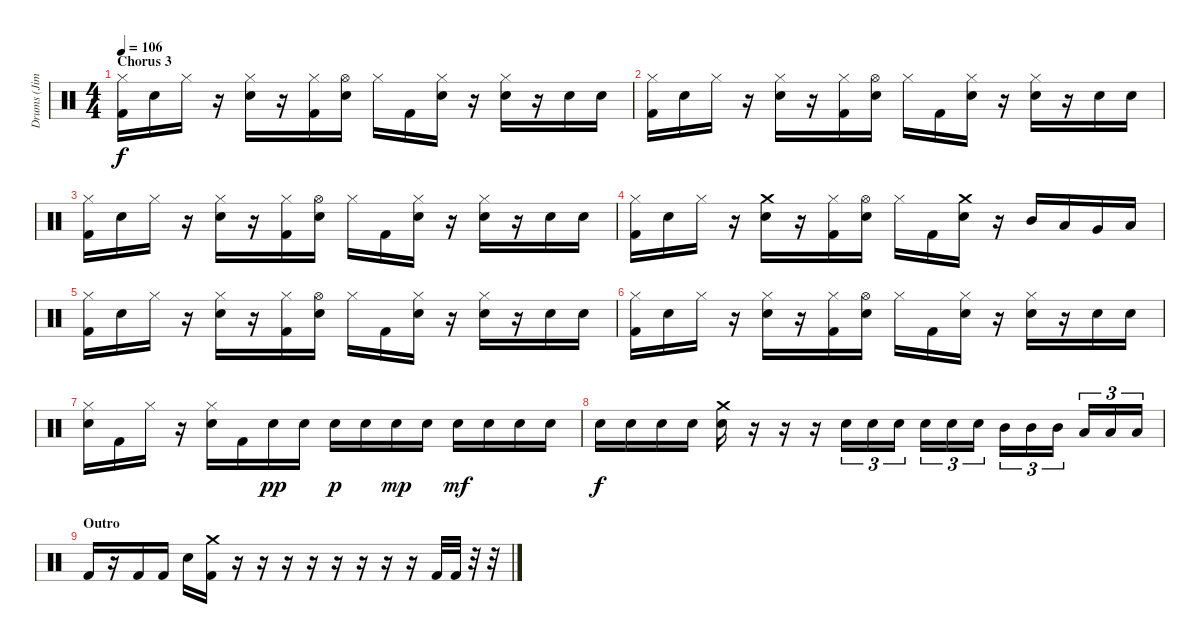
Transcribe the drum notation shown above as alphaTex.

\track ("Drums (Jimmy)" "Drums (Jim") {instrument percussion}
\staff {score}
\articulation defaults
\ts (4 4)
\section ("" "Chorus 3")
\tempo 106
\clef neutral
\ks c
("Hi-Hat (closed)" "Kick (hit) 2").16{dy f} "Snare (hit) 2".16 "Hi-Hat (closed)".16 r.16 ("Hi-Hat (closed)" "Snare (hit) 2").16 r.16 ("Hi-Hat (closed)" "Kick (hit) 2").16 ("Hi-Hat (open)" "Snare (hit) 2").16 "Hi-Hat (closed)".16 "Kick (hit) 2".16 ("Hi-Hat (closed)" "Snare (hit) 2").16 r.16 ("Hi-Hat (closed)" "Snare (hit) 2").16 r.16 "Snare (hit) 2".16 "Snare (hit) 2".16 |
("Hi-Hat (closed)" "Kick (hit) 2").16 "Snare (hit) 2".16 "Hi-Hat (closed)".16 r.16 ("Hi-Hat (closed)" "Snare (hit) 2").16 r.16 ("Hi-Hat (closed)" "Kick (hit) 2").16 ("Hi-Hat (open)" "Snare (hit) 2").16 "Hi-Hat (closed)".16 "Kick (hit) 2".16 ("Hi-Hat (closed)" "Snare (hit) 2").16 r.16 ("Hi-Hat (closed)" "Snare (hit) 2").16 r.16 "Snare (hit) 2".16 "Snare (hit) 2".16 |
("Hi-Hat (closed)" "Kick (hit) 2").16 "Snare (hit) 2".16 "Hi-Hat (closed)".16 r.16 ("Hi-Hat (closed)" "Snare (hit) 2").16 r.16 ("Hi-Hat (closed)" "Kick (hit) 2").16 ("Hi-Hat (open)" "Snare (hit) 2").16 "Hi-Hat (closed)".16 "Kick (hit) 2".16 ("Hi-Hat (closed)" "Snare (hit) 2").16 r.16 ("Hi-Hat (closed)" "Snare (hit) 2").16 r.16 "Snare (hit) 2".16 "Snare (hit) 2".16 |
("Hi-Hat (closed)" "Kick (hit) 2").16 "Snare (hit) 2".16 "Hi-Hat (closed)".16 r.16 ("Crash medium (hit)" "Snare (hit) 2").16 r.16 ("Hi-Hat (closed)" "Kick (hit) 2").16 ("Hi-Hat (open)" "Snare (hit) 2").16 "Hi-Hat (closed)".16 "Kick (hit) 2".16 ("Crash medium (hit)" "Snare (hit) 2").16 r.16 "Mid Tom (hit)".16 "Low Tom (hit)".16 "Very Low Tom (hit)".16 "Low Floor Tom (hit)".16 |
("Hi-Hat (closed)" "Kick (hit) 2").16 "Snare (hit) 2".16 "Hi-Hat (closed)".16 r.16 ("Hi-Hat (closed)" "Snare (hit) 2").16 r.16 ("Hi-Hat (closed)" "Kick (hit) 2").16 ("Hi-Hat (open)" "Snare (hit) 2").16 "Hi-Hat (closed)".16 "Kick (hit) 2".16 ("Hi-Hat (closed)" "Snare (hit) 2").16 r.16 ("Hi-Hat (closed)" "Snare (hit) 2").16 r.16 "Snare (hit) 2".16 "Snare (hit) 2".16 |
("Hi-Hat (closed)" "Kick (hit) 2").16 "Snare (hit) 2".16 "Hi-Hat (closed)".16 r.16 ("Hi-Hat (closed)" "Snare (hit) 2").16 r.16 ("Hi-Hat (closed)" "Kick (hit) 2").16 ("Hi-Hat (open)" "Snare (hit) 2").16 "Hi-Hat (closed)".16 "Kick (hit) 2".16 ("Hi-Hat (closed)" "Snare (hit) 2").16 r.16 ("Hi-Hat (closed)" "Snare (hit) 2").16 r.16 "Snare (hit) 2".16 "Snare (hit) 2".16 |
("Hi-Hat (closed)" "Snare (hit) 2").16 "Kick (hit) 2".16 "Hi-Hat (closed)".16 r.16 ("Hi-Hat (closed)" "Snare (hit) 2").16 "Kick (hit) 2".16 "Snare (hit) 2".16{dy pp} "Snare (hit) 2".16 "Snare (hit) 2".16{dy p} "Snare (hit) 2".16 "Snare (hit) 2".16{dy mp} "Snare (hit) 2".16 "Snare (hit) 2".16{dy mf} "Snare (hit) 2".16 "Snare (hit) 2".16 "Snare (hit) 2".16 |
"Snare (hit) 2".16{dy f} "Snare (hit) 2".16 "Snare (hit) 2".16 "Snare (hit) 2".16 ("Crash medium (hit)" "Snare (hit) 2").16 r.16 r.16 r.16 "Snare (hit) 2".16{tu (3 2)} "Snare (hit) 2".16{tu (3 2)} "Snare (hit) 2".16{tu (3 2)} "Snare (hit) 2".16{tu (3 2)} "Snare (hit) 2".16{tu (3 2)} "Snare (hit) 2".16{tu (3 2)} "Mid Tom (hit)".16{tu (3 2)} "Mid Tom (hit)".16{tu (3 2)} "Mid Tom (hit)".16{tu (3 2)} "Low Tom (hit)".16{tu (3 2)} "Low Tom (hit)".16{tu (3 2)} "Low Tom (hit)".16{tu (3 2)} |
\section ("" "Outro")
"Kick (hit) 2".16 r.16 "Kick (hit) 2".16 "Kick (hit) 2".16 "Snare (hit) 2".16 ("Crash medium (hit)" "Kick (hit) 2").16 r.16 r.16 r.16 r.16 r.16 r.16 r.16 r.16 "Kick (hit) 2".32 "Kick (hit) 2".32 r.32 r.32
